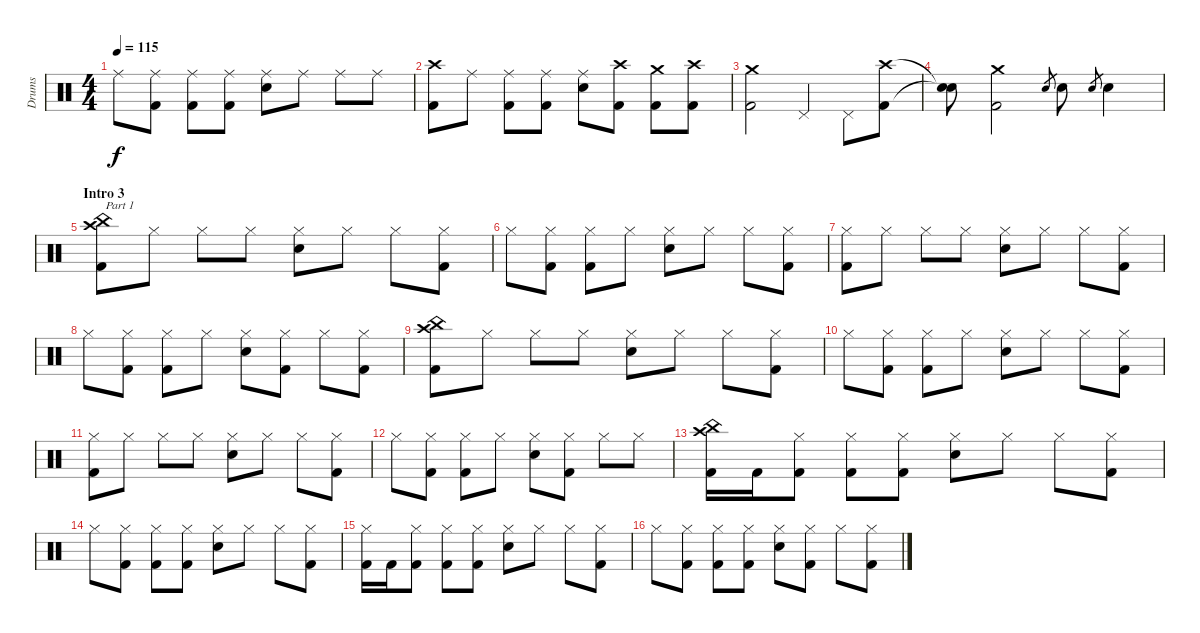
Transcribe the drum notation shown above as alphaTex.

\track ("Drums" "Drums") {instrument percussion}
\staff {score}
\articulation defaults
\ts (4 4)
\tempo 115
\clef neutral
\ks c "Ride (middle)".8{dy f}
("Ride (middle)" "Kick (hit) 2").8 ("Ride (middle)" "Kick (hit) 2").8 ("Ride (middle)" "Kick (hit) 2").8 ("Ride (middle)" "Snare (hit) 2").8 "Ride (middle)".8 "Ride (middle)".8 "Ride (middle)".8 |
("Crash high (hit)" "Kick (hit) 2").8 "Ride (middle)".8 ("Ride (middle)" "Kick (hit) 2").8 ("Ride (middle)" "Kick (hit) 2").8 ("Ride (middle)" "Snare (hit) 2").8 ("Crash high (hit)" "Kick (hit) 2").8 ("Crash medium (hit)" "Kick (hit) 2").8 ("Crash high (hit)" "Kick (hit) 2").8 |
("Crash medium (hit)" "Kick (hit) 2").2 "Pedal Hi-Hat (hit)".4 "Pedal Hi-Hat (hit)".8 ("Crash high (hit)" "Kick (hit) 2").8 |
("Snare (hit)"{t} "Snare (hit)"{t}).8 ("Crash medium (hit)" "Kick (hit) 2").2 "Snare (hit) 2".8{gr} "Snare (hit) 2".8 "Snare (hit) 2".8{gr} "Snare (hit) 2".4 |
\section ("" "Intro 3")
("Crash high (hit)" "China (hit)" "Kick (hit) 2").8{txt "Part 1"} "Hi-Hat (closed)".8 "Hi-Hat (closed)".8 "Hi-Hat (closed)".8 ("Hi-Hat (closed)" "Snare (hit) 2").8 "Hi-Hat (closed)".8 "Hi-Hat (closed)".8 ("Hi-Hat (closed)" "Kick (hit) 2").8 |
"Hi-Hat (closed)".8 ("Hi-Hat (closed)" "Kick (hit) 2").8 ("Hi-Hat (closed)" "Kick (hit) 2").8 "Hi-Hat (closed)".8 ("Hi-Hat (closed)" "Snare (hit) 2").8 "Hi-Hat (closed)".8 "Hi-Hat (closed)".8 ("Hi-Hat (closed)" "Kick (hit) 2").8 |
("Hi-Hat (closed)" "Kick (hit) 2").8 "Hi-Hat (closed)".8 "Hi-Hat (closed)".8 "Hi-Hat (closed)".8 ("Hi-Hat (closed)" "Snare (hit) 2").8 "Hi-Hat (closed)".8 "Hi-Hat (closed)".8 ("Hi-Hat (closed)" "Kick (hit) 2").8 |
"Hi-Hat (closed)".8 ("Hi-Hat (closed)" "Kick (hit) 2").8 ("Hi-Hat (closed)" "Kick (hit) 2").8 "Hi-Hat (closed)".8 ("Hi-Hat (closed)" "Snare (hit) 2").8 ("Hi-Hat (closed)" "Kick (hit) 2").8 "Hi-Hat (closed)".8 ("Hi-Hat (closed)" "Kick (hit) 2").8 |
("Crash high (hit)" "China (hit)" "Kick (hit) 2").8 "Hi-Hat (closed)".8 "Hi-Hat (closed)".8 "Hi-Hat (closed)".8 ("Hi-Hat (closed)" "Snare (hit) 2").8 "Hi-Hat (closed)".8 "Hi-Hat (closed)".8 ("Hi-Hat (closed)" "Kick (hit) 2").8 |
"Hi-Hat (closed)".8 ("Hi-Hat (closed)" "Kick (hit) 2").8 ("Hi-Hat (closed)" "Kick (hit) 2").8 "Hi-Hat (closed)".8 ("Hi-Hat (closed)" "Snare (hit) 2").8 "Hi-Hat (closed)".8 "Hi-Hat (closed)".8 ("Hi-Hat (closed)" "Kick (hit) 2").8 |
("Hi-Hat (closed)" "Kick (hit) 2").8 "Hi-Hat (closed)".8 "Hi-Hat (closed)".8 "Hi-Hat (closed)".8 ("Hi-Hat (closed)" "Snare (hit) 2").8 "Hi-Hat (closed)".8 "Hi-Hat (closed)".8 ("Hi-Hat (closed)" "Kick (hit) 2").8 |
"Hi-Hat (closed)".8 ("Hi-Hat (closed)" "Kick (hit) 2").8 ("Hi-Hat (closed)" "Kick (hit) 2").8 "Hi-Hat (closed)".8 ("Hi-Hat (closed)" "Snare (hit) 2").8 ("Hi-Hat (closed)" "Kick (hit) 2").8 "Hi-Hat (closed)".8 "Hi-Hat (closed)".8 |
("Crash high (hit)" "China (hit)" "Kick (hit) 2").16 "Kick (hit) 2".16 ("Hi-Hat (closed)" "Kick (hit) 2").8 ("Hi-Hat (closed)" "Kick (hit) 2").8 ("Hi-Hat (closed)" "Kick (hit) 2").8 ("Hi-Hat (closed)" "Snare (hit) 2").8 "Hi-Hat (closed)".8 "Hi-Hat (closed)".8 ("Hi-Hat (closed)" "Kick (hit) 2").8 |
"Hi-Hat (closed)".8 ("Hi-Hat (closed)" "Kick (hit) 2").8 ("Hi-Hat (closed)" "Kick (hit) 2").8 ("Hi-Hat (closed)" "Kick (hit) 2").8 ("Hi-Hat (closed)" "Snare (hit) 2").8 "Hi-Hat (closed)".8 "Hi-Hat (closed)".8 ("Hi-Hat (closed)" "Kick (hit) 2").8 |
("Hi-Hat (closed)" "Kick (hit) 2").16 "Kick (hit) 2".16 ("Hi-Hat (closed)" "Kick (hit) 2").8 ("Hi-Hat (closed)" "Kick (hit) 2").8 ("Hi-Hat (closed)" "Kick (hit) 2").8 ("Hi-Hat (closed)" "Snare (hit) 2").8 "Hi-Hat (closed)".8 "Hi-Hat (closed)".8 ("Hi-Hat (closed)" "Kick (hit) 2").8 |
"Hi-Hat (closed)".8 ("Hi-Hat (closed)" "Kick (hit) 2").8 ("Hi-Hat (closed)" "Kick (hit) 2").8 ("Hi-Hat (closed)" "Kick (hit) 2").8 ("Hi-Hat (closed)" "Snare (hit) 2").8 ("Hi-Hat (closed)" "Kick (hit) 2").8 "Hi-Hat (closed)".8 ("Hi-Hat (closed)" "Kick (hit) 2").8
